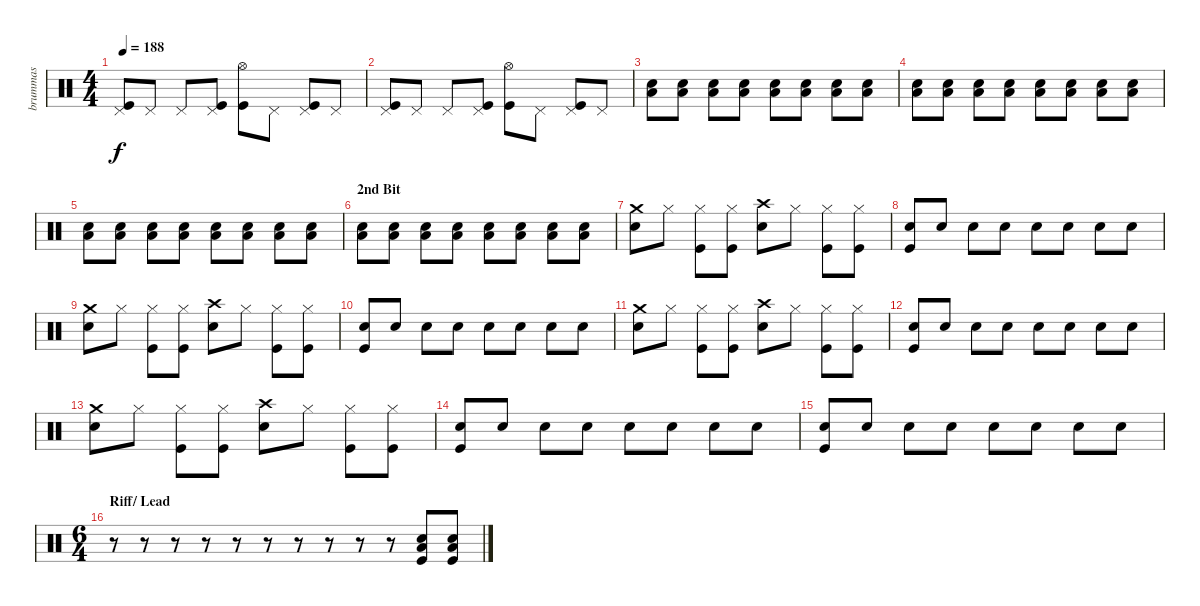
\track ("brummas" "brummas") {instrument percussion}
\staff {score}
\articulation defaults
\ts (4 4)
\tempo 188
\clef neutral
\ks c
("Pedal Hi-Hat (hit)" "Kick (hit)").8{dy f} "Pedal Hi-Hat (hit)".8 "Pedal Hi-Hat (hit)".8 ("Pedal Hi-Hat (hit)" "Kick (hit)").8 ("Hi-Hat (open)" "Kick (hit)").8 "Pedal Hi-Hat (hit)".8 ("Pedal Hi-Hat (hit)" "Kick (hit)").8 "Pedal Hi-Hat (hit)".8 |
("Pedal Hi-Hat (hit)" "Kick (hit)").8 "Pedal Hi-Hat (hit)".8 "Pedal Hi-Hat (hit)".8 ("Pedal Hi-Hat (hit)" "Kick (hit)").8 ("Hi-Hat (open)" "Kick (hit)").8 "Pedal Hi-Hat (hit)".8 ("Pedal Hi-Hat (hit)" "Kick (hit)").8 "Pedal Hi-Hat (hit)".8 |
("Low Floor Tom (hit)" "Snare (hit) 2").8{volume 2} ("Low Floor Tom (hit)" "Snare (hit) 2").8{volume 15} ("Low Floor Tom (hit)" "Snare (hit) 2").8 ("Low Floor Tom (hit)" "Snare (hit) 2").8 ("Low Floor Tom (hit)" "Snare (hit) 2").8 ("Low Floor Tom (hit)" "Snare (hit) 2").8 ("Low Floor Tom (hit)" "Snare (hit) 2").8 ("Low Floor Tom (hit)" "Snare (hit) 2").8 |
("Low Floor Tom (hit)" "Snare (hit) 2").8 ("Low Floor Tom (hit)" "Snare (hit) 2").8 ("Low Floor Tom (hit)" "Snare (hit) 2").8 ("Low Floor Tom (hit)" "Snare (hit) 2").8 ("Low Floor Tom (hit)" "Snare (hit) 2").8 ("Low Floor Tom (hit)" "Snare (hit) 2").8 ("Low Floor Tom (hit)" "Snare (hit) 2").8 ("Low Floor Tom (hit)" "Snare (hit) 2").8 |
("Low Floor Tom (hit)" "Snare (hit) 2").8 ("Low Floor Tom (hit)" "Snare (hit) 2").8 ("Low Floor Tom (hit)" "Snare (hit) 2").8 ("Low Floor Tom (hit)" "Snare (hit) 2").8 ("Low Floor Tom (hit)" "Snare (hit) 2").8 ("Low Floor Tom (hit)" "Snare (hit) 2").8 ("Low Floor Tom (hit)" "Snare (hit) 2").8 ("Low Floor Tom (hit)" "Snare (hit) 2").8 |
\section ("" "2nd Bit")
("Low Floor Tom (hit)" "Snare (hit) 2").8 ("Low Floor Tom (hit)" "Snare (hit) 2").8 ("Low Floor Tom (hit)" "Snare (hit) 2").8 ("Low Floor Tom (hit)" "Snare (hit) 2").8 ("Low Floor Tom (hit)" "Snare (hit) 2").8 ("Low Floor Tom (hit)" "Snare (hit) 2").8 ("Low Floor Tom (hit)" "Snare (hit) 2").8 ("Low Floor Tom (hit)" "Snare (hit) 2").8 |
("Crash medium (hit)" "Snare (hit) 2").8 "Hi-Hat (closed)".8 ("Hi-Hat (closed)" "Kick (hit)").8 ("Hi-Hat (closed)" "Kick (hit)").8 ("Crash high (hit)" "Snare (hit) 2").8 "Hi-Hat (closed)".8 ("Hi-Hat (closed)" "Kick (hit)").8 ("Hi-Hat (closed)" "Kick (hit)").8 |
("Snare (hit) 2" "Kick (hit)").8 "Snare (hit) 2".8 "Snare (hit) 2".8 "Snare (hit) 2".8 "Snare (hit) 2".8 "Snare (hit) 2".8 "Snare (hit) 2".8 "Snare (hit) 2".8 |
("Crash medium (hit)" "Snare (hit) 2").8 "Hi-Hat (closed)".8 ("Hi-Hat (closed)" "Kick (hit)").8 ("Hi-Hat (closed)" "Kick (hit)").8 ("Crash high (hit)" "Snare (hit) 2").8 "Hi-Hat (closed)".8 ("Hi-Hat (closed)" "Kick (hit)").8 ("Hi-Hat (closed)" "Kick (hit)").8 |
("Snare (hit) 2" "Kick (hit)").8 "Snare (hit) 2".8 "Snare (hit) 2".8 "Snare (hit) 2".8 "Snare (hit) 2".8 "Snare (hit) 2".8 "Snare (hit) 2".8 "Snare (hit) 2".8 |
("Crash medium (hit)" "Snare (hit) 2").8 "Hi-Hat (closed)".8 ("Hi-Hat (closed)" "Kick (hit)").8 ("Hi-Hat (closed)" "Kick (hit)").8 ("Crash high (hit)" "Snare (hit) 2").8 "Hi-Hat (closed)".8 ("Hi-Hat (closed)" "Kick (hit)").8 ("Hi-Hat (closed)" "Kick (hit)").8 |
("Snare (hit) 2" "Kick (hit)").8 "Snare (hit) 2".8 "Snare (hit) 2".8 "Snare (hit) 2".8 "Snare (hit) 2".8 "Snare (hit) 2".8 "Snare (hit) 2".8 "Snare (hit) 2".8 |
("Crash medium (hit)" "Snare (hit) 2").8 "Hi-Hat (closed)".8 ("Hi-Hat (closed)" "Kick (hit)").8 ("Hi-Hat (closed)" "Kick (hit)").8 ("Crash high (hit)" "Snare (hit) 2").8 "Hi-Hat (closed)".8 ("Hi-Hat (closed)" "Kick (hit)").8 ("Hi-Hat (closed)" "Kick (hit)").8 |
("Snare (hit) 2" "Kick (hit)").8 "Snare (hit) 2".8 "Snare (hit) 2".8 "Snare (hit) 2".8 "Snare (hit) 2".8 "Snare (hit) 2".8 "Snare (hit) 2".8 "Snare (hit) 2".8 |
("Snare (hit) 2" "Kick (hit)").8 "Snare (hit) 2".8 "Snare (hit) 2".8 "Snare (hit) 2".8 "Snare (hit) 2".8 "Snare (hit) 2".8 "Snare (hit) 2".8 "Snare (hit) 2".8 |
\ts (6 4)
\section ("" "Riff/ Lead")
r.8 r.8 r.8 r.8 r.8 r.8 r.8 r.8 r.8 r.8 ("Low Floor Tom (hit)" "Snare (hit) 2" "Kick (hit)").8 ("Low Floor Tom (hit)" "Snare (hit) 2" "Kick (hit)").8
